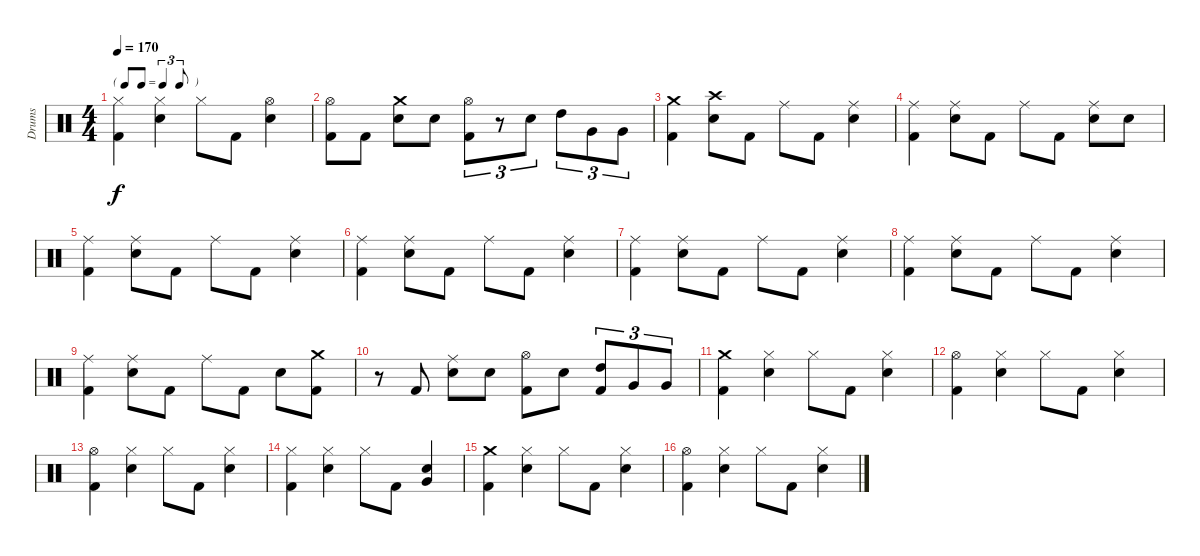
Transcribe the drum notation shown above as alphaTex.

\track ("Drums" "Drums") {instrument percussion}
\staff {score}
\articulation defaults
\ts (4 4)
\tf triplet8th
\tempo 170
\clef neutral
\ks c
("Hi-Hat (closed)" "Kick (hit) 2").4{dy f} ("Hi-Hat (closed)" "Snare (hit) 2").4 "Hi-Hat (closed)".8 "Kick (hit) 2".8 ("Hi-Hat (open)" "Snare (hit) 2").4 |
("Hi-Hat (open)" "Kick (hit) 2").8 "Kick (hit) 2".8 ("Crash medium (hit)" "Snare (hit) 2").8 "Snare (hit) 2".8 ("Hi-Hat (open)" "Kick (hit) 2").8{tu (3 2)} r.8{tu (3 2)} "Snare (hit) 2".8{tu (3 2)} "High Tom (hit)".8{tu (3 2)} "Very Low Tom (hit)".8{tu (3 2)} "Very Low Tom (hit)".8{tu (3 2)} |
("Crash medium (hit)" "Kick (hit) 2").4 ("Crash high (hit)" "Snare (hit) 2").8 "Kick (hit) 2".8 "Ride (middle)".8 "Kick (hit) 2".8 ("Ride (middle)" "Snare (hit) 2").4 |
("Ride (middle)" "Kick (hit) 2").4 ("Ride (middle)" "Snare (hit) 2").8 "Kick (hit) 2".8 "Ride (middle)".8 "Kick (hit) 2".8 ("Ride (middle)" "Snare (hit) 2").8 "Snare (hit) 2".8 |
("Ride (middle)" "Kick (hit) 2").4 ("Ride (middle)" "Snare (hit) 2").8 "Kick (hit) 2".8 "Ride (middle)".8 "Kick (hit) 2".8 ("Ride (middle)" "Snare (hit) 2").4 |
("Ride (middle)" "Kick (hit) 2").4 ("Ride (middle)" "Snare (hit) 2").8 "Kick (hit) 2".8 "Ride (middle)".8 "Kick (hit) 2".8 ("Ride (middle)" "Snare (hit) 2").4 |
("Ride (middle)" "Kick (hit) 2").4 ("Ride (middle)" "Snare (hit) 2").8 "Kick (hit) 2".8 "Ride (middle)".8 "Kick (hit) 2".8 ("Ride (middle)" "Snare (hit) 2").4 |
("Ride (middle)" "Kick (hit) 2").4 ("Ride (middle)" "Snare (hit) 2").8 "Kick (hit) 2".8 "Ride (middle)".8 "Kick (hit) 2".8 ("Ride (middle)" "Snare (hit) 2").4 |
("Ride (middle)" "Kick (hit) 2").4 ("Ride (middle)" "Snare (hit) 2").8 "Kick (hit) 2".8 "Ride (middle)".8 "Kick (hit) 2".8 "Snare (hit) 2".8 ("Crash medium (hit)" "Kick (hit) 2").8 |
r.8 "Kick (hit) 2".8 ("Ride (middle)" "Snare (hit) 2").8 "Snare (hit) 2".8 ("Hi-Hat (open)" "Kick (hit) 2").8 "Snare (hit) 2".8 ("High Tom (hit)" "Kick (hit) 2").8{tu (3 2)} "Very Low Tom (hit)".8{tu (3 2)} "Very Low Tom (hit)".8{tu (3 2)} |
("Crash medium (hit)" "Kick (hit) 2").4 ("Hi-Hat (closed)" "Snare (hit) 2").4 "Hi-Hat (closed)".8 "Kick (hit) 2".8 ("Hi-Hat (closed)" "Snare (hit) 2").4 |
("Hi-Hat (open)" "Kick (hit) 2").4 ("Hi-Hat (closed)" "Snare (hit) 2").4 "Hi-Hat (closed)".8 "Kick (hit) 2".8 ("Hi-Hat (closed)" "Snare (hit) 2").4 |
("Hi-Hat (open)" "Kick (hit) 2").4 ("Hi-Hat (closed)" "Snare (hit) 2").4 "Hi-Hat (closed)".8 "Kick (hit) 2".8 ("Hi-Hat (closed)" "Snare (hit) 2").4 |
("Hi-Hat (closed)" "Kick (hit) 2").4 ("Hi-Hat (closed)" "Snare (hit) 2").4 "Hi-Hat (closed)".8 "Kick (hit) 2".8 ("Snare (hit) 2" "Very Low Tom (hit)").4 |
("Crash medium (hit)" "Kick (hit) 2").4 ("Hi-Hat (closed)" "Snare (hit) 2").4 "Hi-Hat (closed)".8 "Kick (hit) 2".8 ("Hi-Hat (closed)" "Snare (hit) 2").4 |
("Hi-Hat (open)" "Kick (hit) 2").4 ("Hi-Hat (closed)" "Snare (hit) 2").4 "Hi-Hat (closed)".8 "Kick (hit) 2".8 ("Hi-Hat (closed)" "Snare (hit) 2").4
